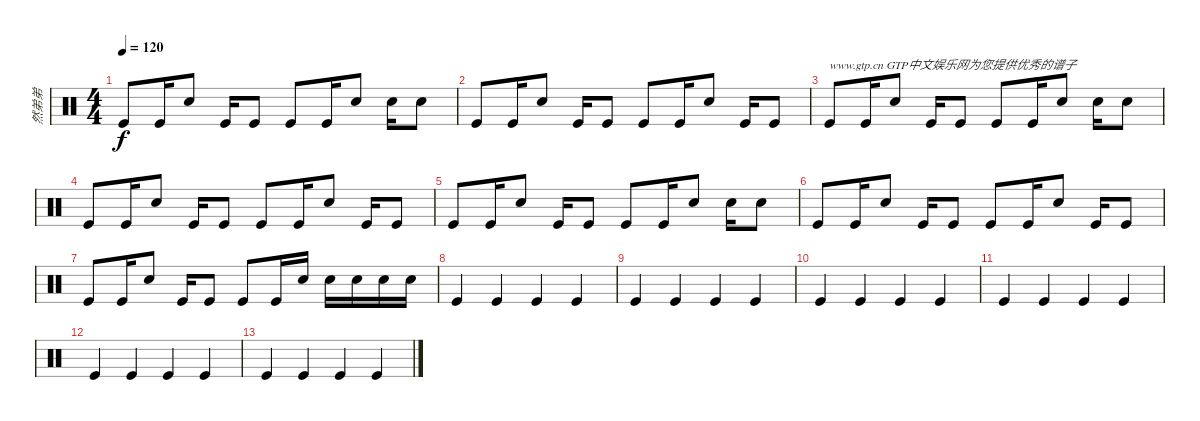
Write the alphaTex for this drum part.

\track ("然弟弟" "然弟弟") {instrument percussion}
\staff {score}
\articulation defaults
\ts (4 4)
\tempo 120
\clef neutral
\ks c "Kick (hit)".8{dy f} "Kick (hit)".16 "Electric Snare (hit)".8 "Kick (hit)".16 "Kick (hit)".8 "Kick (hit)".8 "Kick (hit)".16 "Electric Snare (hit)".8 "Electric Snare (hit)".16 "Electric Snare (hit)".8
|
"Kick (hit)".8 "Kick (hit)".16 "Electric Snare (hit)".8 "Kick (hit)".16 "Kick (hit)".8 "Kick (hit)".8 "Kick (hit)".16 "Electric Snare (hit)".8 "Kick (hit)".16 "Kick (hit)".8 |
"Kick (hit)".8{txt "www.gtp.cn GTP中文娱乐网为您提供优秀的谱子"} "Kick (hit)".16 "Electric Snare (hit)".8 "Kick (hit)".16 "Kick (hit)".8 "Kick (hit)".8 "Kick (hit)".16 "Electric Snare (hit)".8 "Electric Snare (hit)".16 "Electric Snare (hit)".8 |
"Kick (hit)".8 "Kick (hit)".16 "Electric Snare (hit)".8 "Kick (hit)".16 "Kick (hit)".8 "Kick (hit)".8 "Kick (hit)".16 "Electric Snare (hit)".8 "Kick (hit)".16 "Kick (hit)".8 |
"Kick (hit)".8 "Kick (hit)".16 "Electric Snare (hit)".8 "Kick (hit)".16 "Kick (hit)".8 "Kick (hit)".8 "Kick (hit)".16 "Electric Snare (hit)".8 "Electric Snare (hit)".16 "Electric Snare (hit)".8 |
"Kick (hit)".8 "Kick (hit)".16 "Electric Snare (hit)".8 "Kick (hit)".16 "Kick (hit)".8 "Kick (hit)".8 "Kick (hit)".16 "Electric Snare (hit)".8 "Kick (hit)".16 "Kick (hit)".8 |
"Kick (hit)".8 "Kick (hit)".16 "Electric Snare (hit)".8 "Kick (hit)".16 "Kick (hit)".8 "Kick (hit)".8 "Kick (hit)".16 "Electric Snare (hit)".16 "Electric Snare (hit)".16 "Electric Snare (hit)".16 "Electric Snare (hit)".16 "Electric Snare (hit)".16 |
"Kick (hit)".4 "Kick (hit)".4 "Kick (hit)".4 "Kick (hit)".4 |
"Kick (hit)".4 "Kick (hit)".4 "Kick (hit)".4 "Kick (hit)".4 |
"Kick (hit)".4 "Kick (hit)".4 "Kick (hit)".4 "Kick (hit)".4 |
"Kick (hit)".4 "Kick (hit)".4 "Kick (hit)".4 "Kick (hit)".4 |
"Kick (hit)".4 "Kick (hit)".4 "Kick (hit)".4 "Kick (hit)".4 |
"Kick (hit)".4 "Kick (hit)".4 "Kick (hit)".4 "Kick (hit)".4
